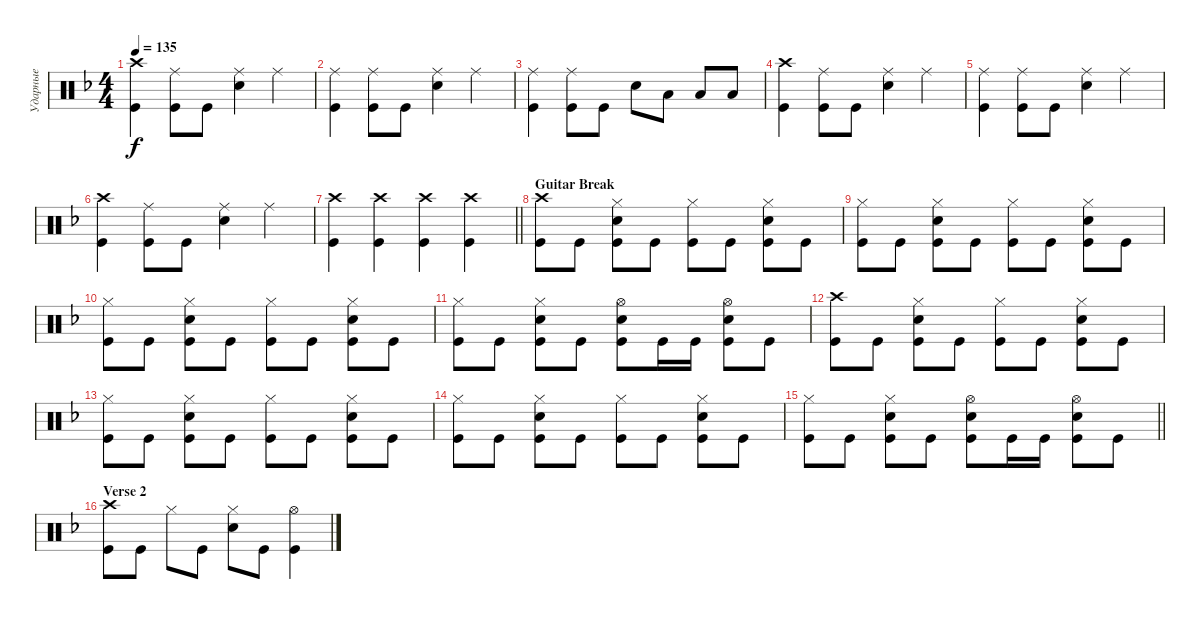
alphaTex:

\track ("Ударные" "Ударные") {instrument percussion}
\staff {score}
\articulation defaults
\ts (4 4)
\tempo 135
\clef neutral
\ks dminor
("Kick (hit)" "Crash high (hit)").4{dy f} ("Kick (hit)" "Ride (middle)").8 "Kick (hit)".8 ("Snare (hit) 2" "Ride (middle)").4 "Ride (middle)".4 |
("Kick (hit)" "Ride (middle)").4 ("Kick (hit)" "Ride (middle)").8 "Kick (hit)".8 ("Snare (hit) 2" "Ride (middle)").4 "Ride (middle)".4 |
("Kick (hit)" "Ride (middle)").4 ("Kick (hit)" "Ride (middle)").8 "Kick (hit)".8 "Snare (hit) 2".8 "Low Tom (hit)".8 "Low Tom (hit)".8 "Low Tom (hit)".8 |
("Kick (hit)" "Crash high (hit)").4 ("Kick (hit)" "Ride (middle)").8 "Kick (hit)".8 ("Snare (hit) 2" "Ride (middle)").4 "Ride (middle)".4 |
("Kick (hit)" "Ride (middle)").4 ("Kick (hit)" "Ride (middle)").8 "Kick (hit)".8 ("Snare (hit) 2" "Ride (middle)").4 "Ride (middle)".4 |
("Kick (hit)" "Crash high (hit)").4 ("Kick (hit)" "Ride (middle)").8 "Kick (hit)".8 ("Snare (hit) 2" "Ride (middle)").4 "Ride (middle)".4 |
\barLineRight lightlight
("Kick (hit)" "Crash high (hit)").4 ("Kick (hit)" "Crash high (hit)").4 ("Kick (hit)" "Crash high (hit)").4 ("Kick (hit)" "Crash high (hit)").4 |
\section ("" "Guitar Break")
("Kick (hit)" "Crash high (hit)").8 "Kick (hit)".8 ("Kick (hit)" "Snare (hit) 2" "Hi-Hat (closed)").8 "Kick (hit)".8 ("Kick (hit)" "Hi-Hat (closed)").8 "Kick (hit)".8 ("Kick (hit)" "Hi-Hat (closed)" "Snare (hit) 2").8 "Kick (hit)".8 |
("Kick (hit)" "Hi-Hat (closed)").8 "Kick (hit)".8 ("Kick (hit)" "Snare (hit) 2" "Hi-Hat (closed)").8 "Kick (hit)".8 ("Kick (hit)" "Hi-Hat (closed)").8 "Kick (hit)".8 ("Kick (hit)" "Hi-Hat (closed)" "Snare (hit) 2").8 "Kick (hit)".8 |
("Kick (hit)" "Hi-Hat (closed)").8 "Kick (hit)".8 ("Kick (hit)" "Snare (hit) 2" "Hi-Hat (closed)").8 "Kick (hit)".8 ("Kick (hit)" "Hi-Hat (closed)").8 "Kick (hit)".8 ("Kick (hit)" "Hi-Hat (closed)" "Snare (hit) 2").8 "Kick (hit)".8 |
("Kick (hit)" "Hi-Hat (closed)").8 "Kick (hit)".8 ("Kick (hit)" "Snare (hit) 2" "Hi-Hat (closed)").8 "Kick (hit)".8 ("Kick (hit)" "Snare (hit) 2" "Hi-Hat (open)").8 "Kick (hit)".16 "Kick (hit)".16 ("Hi-Hat (open)" "Kick (hit)" "Snare (hit) 2").8 "Kick (hit)".8 |
("Kick (hit)" "Crash high (hit)").8 "Kick (hit)".8 ("Kick (hit)" "Snare (hit) 2" "Hi-Hat (closed)").8 "Kick (hit)".8 ("Kick (hit)" "Hi-Hat (closed)").8 "Kick (hit)".8 ("Kick (hit)" "Hi-Hat (closed)" "Snare (hit) 2").8 "Kick (hit)".8 |
("Kick (hit)" "Hi-Hat (closed)").8 "Kick (hit)".8 ("Kick (hit)" "Snare (hit) 2" "Hi-Hat (closed)").8 "Kick (hit)".8 ("Kick (hit)" "Hi-Hat (closed)").8 "Kick (hit)".8 ("Kick (hit)" "Hi-Hat (closed)" "Snare (hit) 2").8 "Kick (hit)".8 |
("Kick (hit)" "Hi-Hat (closed)").8 "Kick (hit)".8 ("Kick (hit)" "Snare (hit) 2" "Hi-Hat (closed)").8 "Kick (hit)".8 ("Kick (hit)" "Hi-Hat (closed)").8 "Kick (hit)".8 ("Kick (hit)" "Hi-Hat (closed)" "Snare (hit) 2").8 "Kick (hit)".8 |
\barLineRight lightlight
("Kick (hit)" "Hi-Hat (closed)").8 "Kick (hit)".8 ("Kick (hit)" "Snare (hit) 2" "Hi-Hat (closed)").8 "Kick (hit)".8 ("Kick (hit)" "Snare (hit) 2" "Hi-Hat (open)").8 "Kick (hit)".16 "Kick (hit)".16 ("Hi-Hat (open)" "Kick (hit)" "Snare (hit) 2").8 "Kick (hit)".8 |
\section ("" "Verse 2")
("Kick (hit)" "Crash high (hit)").8 "Kick (hit)".8 "Hi-Hat (closed)".8 "Kick (hit)".8 ("Snare (hit) 2" "Hi-Hat (closed)").8 "Kick (hit)".8 ("Kick (hit)" "Hi-Hat (open)").4
